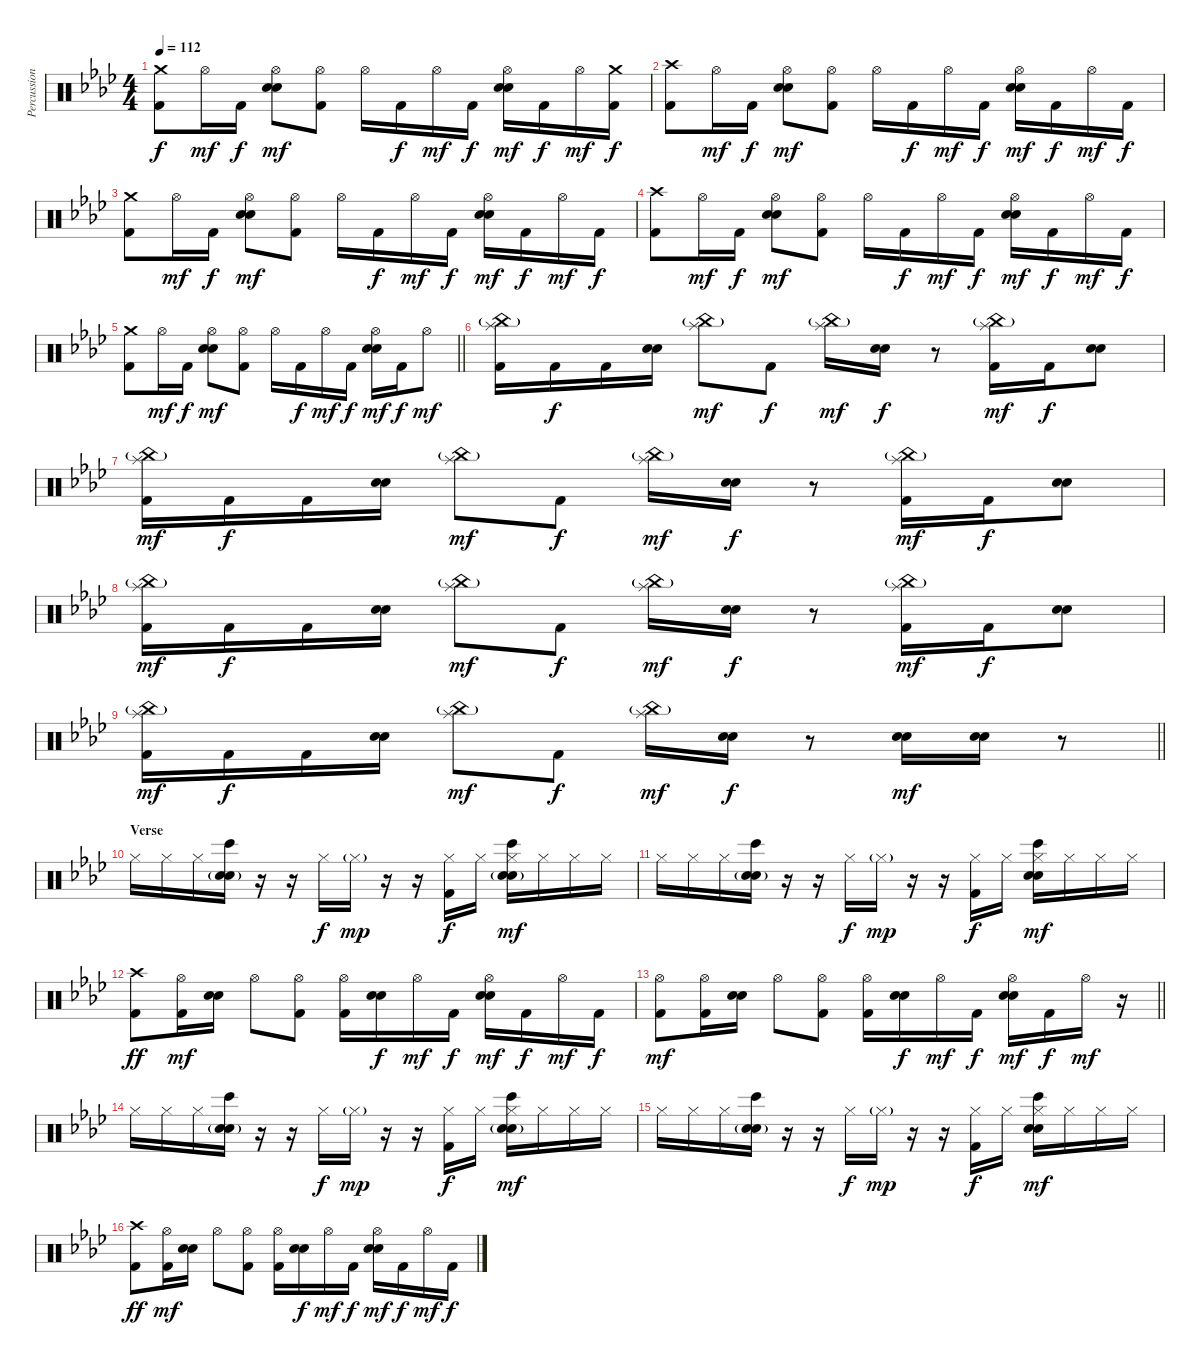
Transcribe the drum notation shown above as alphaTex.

\track ("Percussion" "Percussion") {instrument percussion}
\staff {score}
\articulation defaults
\ts (4 4)
\tempo 112
\clef neutral
\ks ab
("Crash medium (hit)" "Kick (hit) 2").8{dy f} "Hi-Hat (open)".16{dy mf} "Kick (hit) 2".16{dy f} ("Hi-Hat (open)" "Electric Snare (hit)" "Snare (hit) 2").8{dy mf} ("Hi-Hat (open)" "Kick (hit) 2").8 "Hi-Hat (open)".16 "Kick (hit) 2".16{dy f} "Hi-Hat (open)".16{dy mf} "Kick (hit) 2".16{dy f} ("Hi-Hat (open)" "Electric Snare (hit)" "Snare (hit) 2").16{dy mf} "Kick (hit) 2".16{dy f} "Hi-Hat (open)".16{dy mf} ("Crash medium (hit)" "Kick (hit) 2").16{dy f} |
("Crash high (hit)" "Kick (hit) 2").8 "Hi-Hat (open)".16{dy mf} "Kick (hit) 2".16{dy f} ("Hi-Hat (open)" "Electric Snare (hit)" "Snare (hit) 2").8{dy mf} ("Hi-Hat (open)" "Kick (hit) 2").8 "Hi-Hat (open)".16 "Kick (hit) 2".16{dy f} "Hi-Hat (open)".16{dy mf} "Kick (hit) 2".16{dy f} ("Hi-Hat (open)" "Electric Snare (hit)" "Snare (hit) 2").16{dy mf} "Kick (hit) 2".16{dy f} "Hi-Hat (open)".16{dy mf} "Kick (hit) 2".16{dy f} |
("Crash medium (hit)" "Kick (hit) 2").8 "Hi-Hat (open)".16{dy mf} "Kick (hit) 2".16{dy f} ("Hi-Hat (open)" "Electric Snare (hit)" "Snare (hit) 2").8{dy mf} ("Hi-Hat (open)" "Kick (hit) 2").8 "Hi-Hat (open)".16 "Kick (hit) 2".16{dy f} "Hi-Hat (open)".16{dy mf} "Kick (hit) 2".16{dy f} ("Hi-Hat (open)" "Electric Snare (hit)" "Snare (hit) 2").16{dy mf} "Kick (hit) 2".16{dy f} "Hi-Hat (open)".16{dy mf} "Kick (hit) 2".16{dy f} |
("Crash high (hit)" "Kick (hit) 2").8 "Hi-Hat (open)".16{dy mf} "Kick (hit) 2".16{dy f} ("Hi-Hat (open)" "Electric Snare (hit)" "Snare (hit) 2").8{dy mf} ("Hi-Hat (open)" "Kick (hit) 2").8 "Hi-Hat (open)".16 "Kick (hit) 2".16{dy f} "Hi-Hat (open)".16{dy mf} "Kick (hit) 2".16{dy f} ("Hi-Hat (open)" "Electric Snare (hit)" "Snare (hit) 2").16{dy mf} "Kick (hit) 2".16{dy f} "Hi-Hat (open)".16{dy mf} "Kick (hit) 2".16{dy f} |
\barLineRight lightlight
("Crash medium (hit)" "Kick (hit) 2").8 "Hi-Hat (open)".16{dy mf} "Kick (hit) 2".16{dy f} ("Hi-Hat (open)" "Electric Snare (hit)" "Snare (hit) 2").8{dy mf} ("Hi-Hat (open)" "Kick (hit) 2").8 "Hi-Hat (open)".16 "Kick (hit) 2".16{dy f} "Hi-Hat (open)".16{dy mf} "Kick (hit) 2".16{dy f} ("Hi-Hat (open)" "Electric Snare (hit)" "Snare (hit) 2").16{dy mf} "Kick (hit) 2".16{dy f} "Hi-Hat (open)".8{dy mf} |
("Splash (hit)" "China (hit)"{g} "Kick (hit) 2").16 "Kick (hit) 2".16{dy f} "Kick (hit) 2".16 ("Electric Snare (hit)" "Snare (hit) 2").16 ("Splash (hit)" "China (hit)"{g}).8{dy mf} "Kick (hit) 2".8{dy f} ("Splash (hit)" "China (hit)"{g}).16{dy mf} ("Electric Snare (hit)" "Snare (hit) 2").16{dy f} r.8 ("Splash (hit)" "China (hit)"{g} "Kick (hit) 2").16{dy mf} "Kick (hit) 2".16{dy f} ("Electric Snare (hit)" "Snare (hit) 2").8 |
("Splash (hit)" "China (hit)"{g} "Kick (hit) 2").16{dy mf} "Kick (hit) 2".16{dy f} "Kick (hit) 2".16 ("Electric Snare (hit)" "Snare (hit) 2").16 ("Splash (hit)" "China (hit)"{g}).8{dy mf} "Kick (hit) 2".8{dy f} ("Splash (hit)" "China (hit)"{g}).16{dy mf} ("Electric Snare (hit)" "Snare (hit) 2").16{dy f} r.8 ("Splash (hit)" "China (hit)"{g} "Kick (hit) 2").16{dy mf} "Kick (hit) 2".16{dy f} ("Electric Snare (hit)" "Snare (hit) 2").8 |
("Splash (hit)" "China (hit)"{g} "Kick (hit) 2").16{dy mf} "Kick (hit) 2".16{dy f} "Kick (hit) 2".16 ("Electric Snare (hit)" "Snare (hit) 2").16 ("Splash (hit)" "China (hit)"{g}).8{dy mf} "Kick (hit) 2".8{dy f} ("Splash (hit)" "China (hit)"{g}).16{dy mf} ("Electric Snare (hit)" "Snare (hit) 2").16{dy f} r.8 ("Splash (hit)" "China (hit)"{g} "Kick (hit) 2").16{dy mf} "Kick (hit) 2".16{dy f} ("Electric Snare (hit)" "Snare (hit) 2").8 |
\barLineRight lightlight
("Splash (hit)" "China (hit)"{g} "Kick (hit) 2").16{dy mf} "Kick (hit) 2".16{dy f} "Kick (hit) 2".16 ("Electric Snare (hit)" "Snare (hit) 2").16 ("Splash (hit)" "China (hit)"{g}).8{dy mf} "Kick (hit) 2".8{dy f} ("Splash (hit)" "China (hit)"{g}).16{dy mf} ("Electric Snare (hit)" "Snare (hit) 2").16{dy f} r.8 ("Electric Snare (hit)" "Snare (hit) 2").16{dy mf} ("Electric Snare (hit)" "Snare (hit) 2").16 r.8 |
\section ("" "Verse")
"Hi-Hat (closed)".16 "Hi-Hat (closed)".16 "Hi-Hat (closed)".16 ("Bongo High (hit)" "Electric Snare (hit)"{g} "Snare (hit) 2").16 r.16 r.16 "Hi-Hat (closed)".16{dy f} "Hi-Hat (closed)"{g}.16{dy mp} r.16 r.16 ("Hi-Hat (closed)" "Kick (hit) 2").16{dy f} "Hi-Hat (closed)".16 ("Hi-Hat (closed)" "Bongo High (hit)" "Electric Snare (hit)"{g} "Snare (hit) 2").16{dy mf} "Hi-Hat (closed)".16 "Hi-Hat (closed)".16 "Hi-Hat (closed)".16 |
"Hi-Hat (closed)".16 "Hi-Hat (closed)".16 "Hi-Hat (closed)".16 ("Bongo High (hit)" "Electric Snare (hit)"{g} "Snare (hit) 2").16 r.16 r.16 "Hi-Hat (closed)".16{dy f} "Hi-Hat (closed)"{g}.16{dy mp} r.16 r.16 ("Hi-Hat (closed)" "Kick (hit) 2").16{dy f} "Hi-Hat (closed)".16 ("Hi-Hat (closed)" "Bongo High (hit)" "Electric Snare (hit)" "Snare (hit) 2").16{dy mf} "Hi-Hat (closed)".16 "Hi-Hat (closed)".16 "Hi-Hat (closed)".16 |
("Crash high (hit)" "Kick (hit) 2").8{dy ff} ("Hi-Hat (open)" "Kick (hit) 2").16{dy mf} ("Electric Snare (hit)" "Snare (hit) 2").16 "Hi-Hat (open)".8 ("Hi-Hat (open)" "Kick (hit) 2").8 ("Hi-Hat (open)" "Kick (hit) 2").16 ("Electric Snare (hit)" "Snare (hit) 2").16{dy f} "Hi-Hat (open)".16{dy mf} "Kick (hit) 2".16{dy f} ("Hi-Hat (open)" "Electric Snare (hit)" "Snare (hit) 2").16{dy mf} "Kick (hit) 2".16{dy f} "Hi-Hat (open)".16{dy mf} "Kick (hit) 2".16{dy f} |
\barLineRight lightlight
("Hi-Hat (open)" "Kick (hit) 2").8{dy mf} ("Hi-Hat (open)" "Kick (hit) 2").16 ("Electric Snare (hit)" "Snare (hit) 2").16 "Hi-Hat (open)".8 ("Hi-Hat (open)" "Kick (hit) 2").8 ("Hi-Hat (open)" "Kick (hit) 2").16 ("Electric Snare (hit)" "Snare (hit) 2").16{dy f} "Hi-Hat (open)".16{dy mf} "Kick (hit) 2".16{dy f} ("Hi-Hat (open)" "Electric Snare (hit)" "Snare (hit) 2").16{dy mf} "Kick (hit) 2".16{dy f} "Hi-Hat (open)".16{dy mf} r.16 |
"Hi-Hat (closed)".16 "Hi-Hat (closed)".16 "Hi-Hat (closed)".16 ("Bongo High (hit)" "Electric Snare (hit)"{g} "Snare (hit) 2").16 r.16 r.16 "Hi-Hat (closed)".16{dy f} "Hi-Hat (closed)"{g}.16{dy mp} r.16 r.16 ("Hi-Hat (closed)" "Kick (hit) 2").16{dy f} "Hi-Hat (closed)".16 ("Hi-Hat (closed)" "Bongo High (hit)" "Electric Snare (hit)"{g} "Snare (hit) 2").16{dy mf} "Hi-Hat (closed)".16 "Hi-Hat (closed)".16 "Hi-Hat (closed)".16 |
"Hi-Hat (closed)".16 "Hi-Hat (closed)".16 "Hi-Hat (closed)".16 ("Bongo High (hit)" "Electric Snare (hit)"{g} "Snare (hit) 2").16 r.16 r.16 "Hi-Hat (closed)".16{dy f} "Hi-Hat (closed)"{g}.16{dy mp} r.16 r.16 ("Hi-Hat (closed)" "Kick (hit) 2").16{dy f} "Hi-Hat (closed)".16 ("Hi-Hat (closed)" "Bongo High (hit)" "Electric Snare (hit)" "Snare (hit) 2").16{dy mf} "Hi-Hat (closed)".16 "Hi-Hat (closed)".16 "Hi-Hat (closed)".16 |
("Crash high (hit)" "Kick (hit) 2").8{dy ff} ("Hi-Hat (open)" "Kick (hit) 2").16{dy mf} ("Electric Snare (hit)" "Snare (hit) 2").16 "Hi-Hat (open)".8 ("Hi-Hat (open)" "Kick (hit) 2").8 ("Hi-Hat (open)" "Kick (hit) 2").16 ("Electric Snare (hit)" "Snare (hit) 2").16{dy f} "Hi-Hat (open)".16{dy mf} "Kick (hit) 2".16{dy f} ("Hi-Hat (open)" "Electric Snare (hit)" "Snare (hit) 2").16{dy mf} "Kick (hit) 2".16{dy f} "Hi-Hat (open)".16{dy mf} "Kick (hit) 2".16{dy f}
